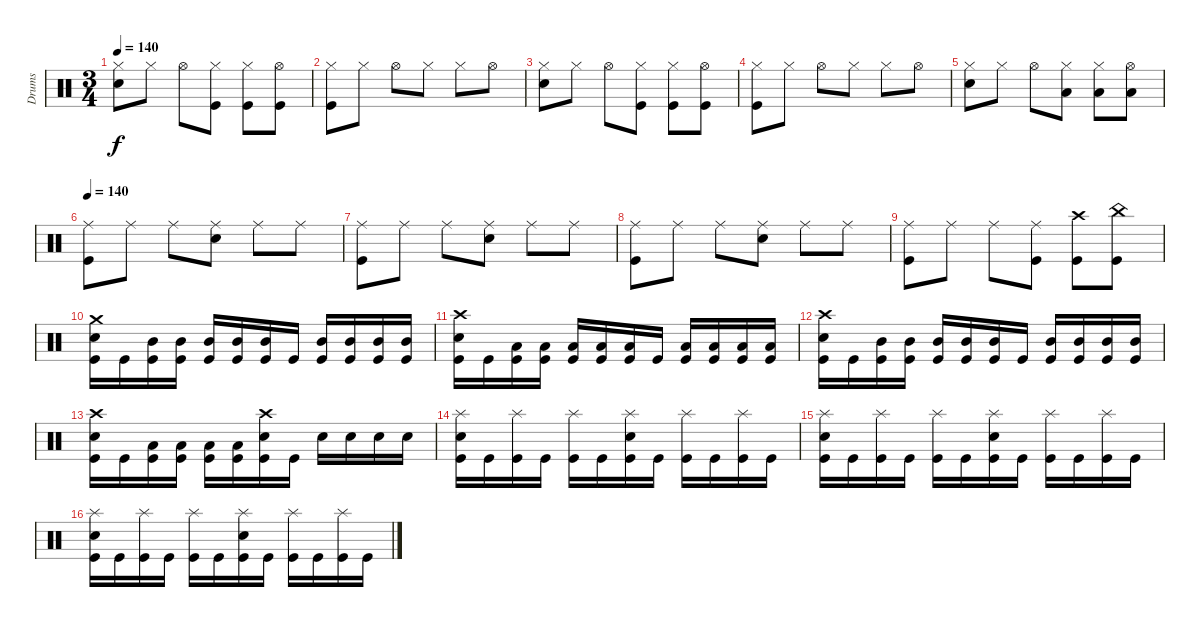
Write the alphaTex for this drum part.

\track ("Drums" "Drums") {instrument percussion}
\staff {score}
\articulation defaults
\ts (3 4)
\tempo 140
\clef neutral
\ks c
("Snare (hit) 2" "Hi-Hat (closed)").8{dy f} "Hi-Hat (closed)".8 "Hi-Hat (open)".8 ("Kick (hit)" "Hi-Hat (closed)").8 ("Kick (hit)" "Hi-Hat (closed)").8 ("Kick (hit)" "Hi-Hat (open)").8 |
("Kick (hit)" "Hi-Hat (closed)").8 "Hi-Hat (closed)".8 "Hi-Hat (open)".8 "Hi-Hat (closed)".8 "Hi-Hat (closed)".8 "Hi-Hat (open)".8 |
("Snare (hit) 2" "Hi-Hat (closed)").8 "Hi-Hat (closed)".8 "Hi-Hat (open)".8 ("Kick (hit)" "Hi-Hat (closed)").8 ("Kick (hit)" "Hi-Hat (closed)").8 ("Kick (hit)" "Hi-Hat (open)").8 |
("Kick (hit)" "Hi-Hat (closed)").8 "Hi-Hat (closed)".8 "Hi-Hat (open)".8 "Hi-Hat (closed)".8 "Hi-Hat (closed)".8 "Hi-Hat (open)".8 |
("Snare (hit) 2" "Hi-Hat (closed)").8 "Hi-Hat (closed)".8 "Hi-Hat (open)".8 ("Low Tom (hit)" "Hi-Hat (closed)").8 ("Low Tom (hit)" "Hi-Hat (closed)").8 ("Low Tom (hit)" "Hi-Hat (open)").8 |
\tempo 140
("Kick (hit)" "Ride (middle)").8 "Ride (middle)".8 "Ride (middle)".8 ("Snare (hit) 2" "Ride (middle)").8 "Ride (middle)".8 "Ride (middle)".8 |
("Kick (hit)" "Ride (middle)").8 "Ride (middle)".8 "Ride (middle)".8 ("Snare (hit) 2" "Ride (middle)").8 "Ride (middle)".8 "Ride (middle)".8 |
("Kick (hit)" "Ride (middle)").8 "Ride (middle)".8 "Ride (middle)".8 ("Snare (hit) 2" "Ride (middle)").8 "Ride (middle)".8 "Ride (middle)".8 |
("Kick (hit)" "Ride (middle)").8 "Ride (middle)".8 "Ride (middle)".8 ("Kick (hit)" "Ride (middle)").8 ("Kick (hit)" "Crash high (hit)").8 ("Kick (hit)" "China (hit)").8 |
("Kick (hit)" "Snare (hit) 2" "Crash medium (hit)").16 "Kick (hit)".16 ("Kick (hit)" "Mid Tom (hit)").16 ("Kick (hit)" "Mid Tom (hit)").16 ("Kick (hit)" "Mid Tom (hit)").16 ("Kick (hit)" "Mid Tom (hit)").16 ("Kick (hit)" "Mid Tom (hit)").16 "Kick (hit)".16 ("Kick (hit)" "Mid Tom (hit)").16 ("Kick (hit)" "Mid Tom (hit)").16 ("Kick (hit)" "Mid Tom (hit)").16 ("Kick (hit)" "Mid Tom (hit)").16 |
("Kick (hit)" "Snare (hit) 2" "Crash high (hit)").16 "Kick (hit)".16 ("Kick (hit)" "Low Tom (hit)").16 ("Kick (hit)" "Low Tom (hit)").16 ("Kick (hit)" "Low Tom (hit)").16 ("Kick (hit)" "Low Tom (hit)").16 ("Kick (hit)" "Low Tom (hit)").16 "Kick (hit)".16 ("Kick (hit)" "Low Tom (hit)").16 ("Kick (hit)" "Low Tom (hit)").16 ("Kick (hit)" "Low Tom (hit)").16 ("Kick (hit)" "Low Tom (hit)").16 |
("Kick (hit)" "Snare (hit) 2" "Crash high (hit)").16 "Kick (hit)".16 ("Kick (hit)" "Mid Tom (hit)").16 ("Kick (hit)" "Mid Tom (hit)").16 ("Kick (hit)" "Mid Tom (hit)").16 ("Kick (hit)" "Mid Tom (hit)").16 ("Kick (hit)" "Mid Tom (hit)").16 "Kick (hit)".16 ("Kick (hit)" "Mid Tom (hit)").16 ("Kick (hit)" "Mid Tom (hit)").16 ("Kick (hit)" "Mid Tom (hit)").16 ("Kick (hit)" "Mid Tom (hit)").16 |
("Kick (hit)" "Snare (hit) 2" "Crash high (hit)").16 "Kick (hit)".16 ("Kick (hit)" "Low Tom (hit)").16 ("Kick (hit)" "Low Tom (hit)").16 ("Kick (hit)" "Low Tom (hit)").16 ("Kick (hit)" "Low Tom (hit)").16 ("Kick (hit)" "Snare (hit) 2" "Crash high (hit)").16 "Kick (hit)".16 "Snare (hit) 2".16 "Snare (hit) 2".16 "Snare (hit) 2".16 "Snare (hit) 2".16 |
("Kick (hit)" "Snare (hit) 2" "Splash (hit)").16 "Kick (hit)".16 ("Kick (hit)" "Splash (hit)").16 "Kick (hit)".16 ("Kick (hit)" "Splash (hit)").16 "Kick (hit)".16 ("Kick (hit)" "Snare (hit) 2" "Splash (hit)").16 "Kick (hit)".16 ("Kick (hit)" "Splash (hit)").16 "Kick (hit)".16 ("Kick (hit)" "Splash (hit)").16 "Kick (hit)".16 |
("Kick (hit)" "Snare (hit) 2" "Splash (hit)").16 "Kick (hit)".16 ("Kick (hit)" "Splash (hit)").16 "Kick (hit)".16 ("Kick (hit)" "Splash (hit)").16 "Kick (hit)".16 ("Kick (hit)" "Snare (hit) 2" "Splash (hit)").16 "Kick (hit)".16 ("Kick (hit)" "Splash (hit)").16 "Kick (hit)".16 ("Kick (hit)" "Splash (hit)").16 "Kick (hit)".16 |
("Kick (hit)" "Snare (hit) 2" "Splash (hit)").16 "Kick (hit)".16 ("Kick (hit)" "Splash (hit)").16 "Kick (hit)".16 ("Kick (hit)" "Splash (hit)").16 "Kick (hit)".16 ("Kick (hit)" "Snare (hit) 2" "Splash (hit)").16 "Kick (hit)".16 ("Kick (hit)" "Splash (hit)").16 "Kick (hit)".16 ("Kick (hit)" "Splash (hit)").16 "Kick (hit)".16
